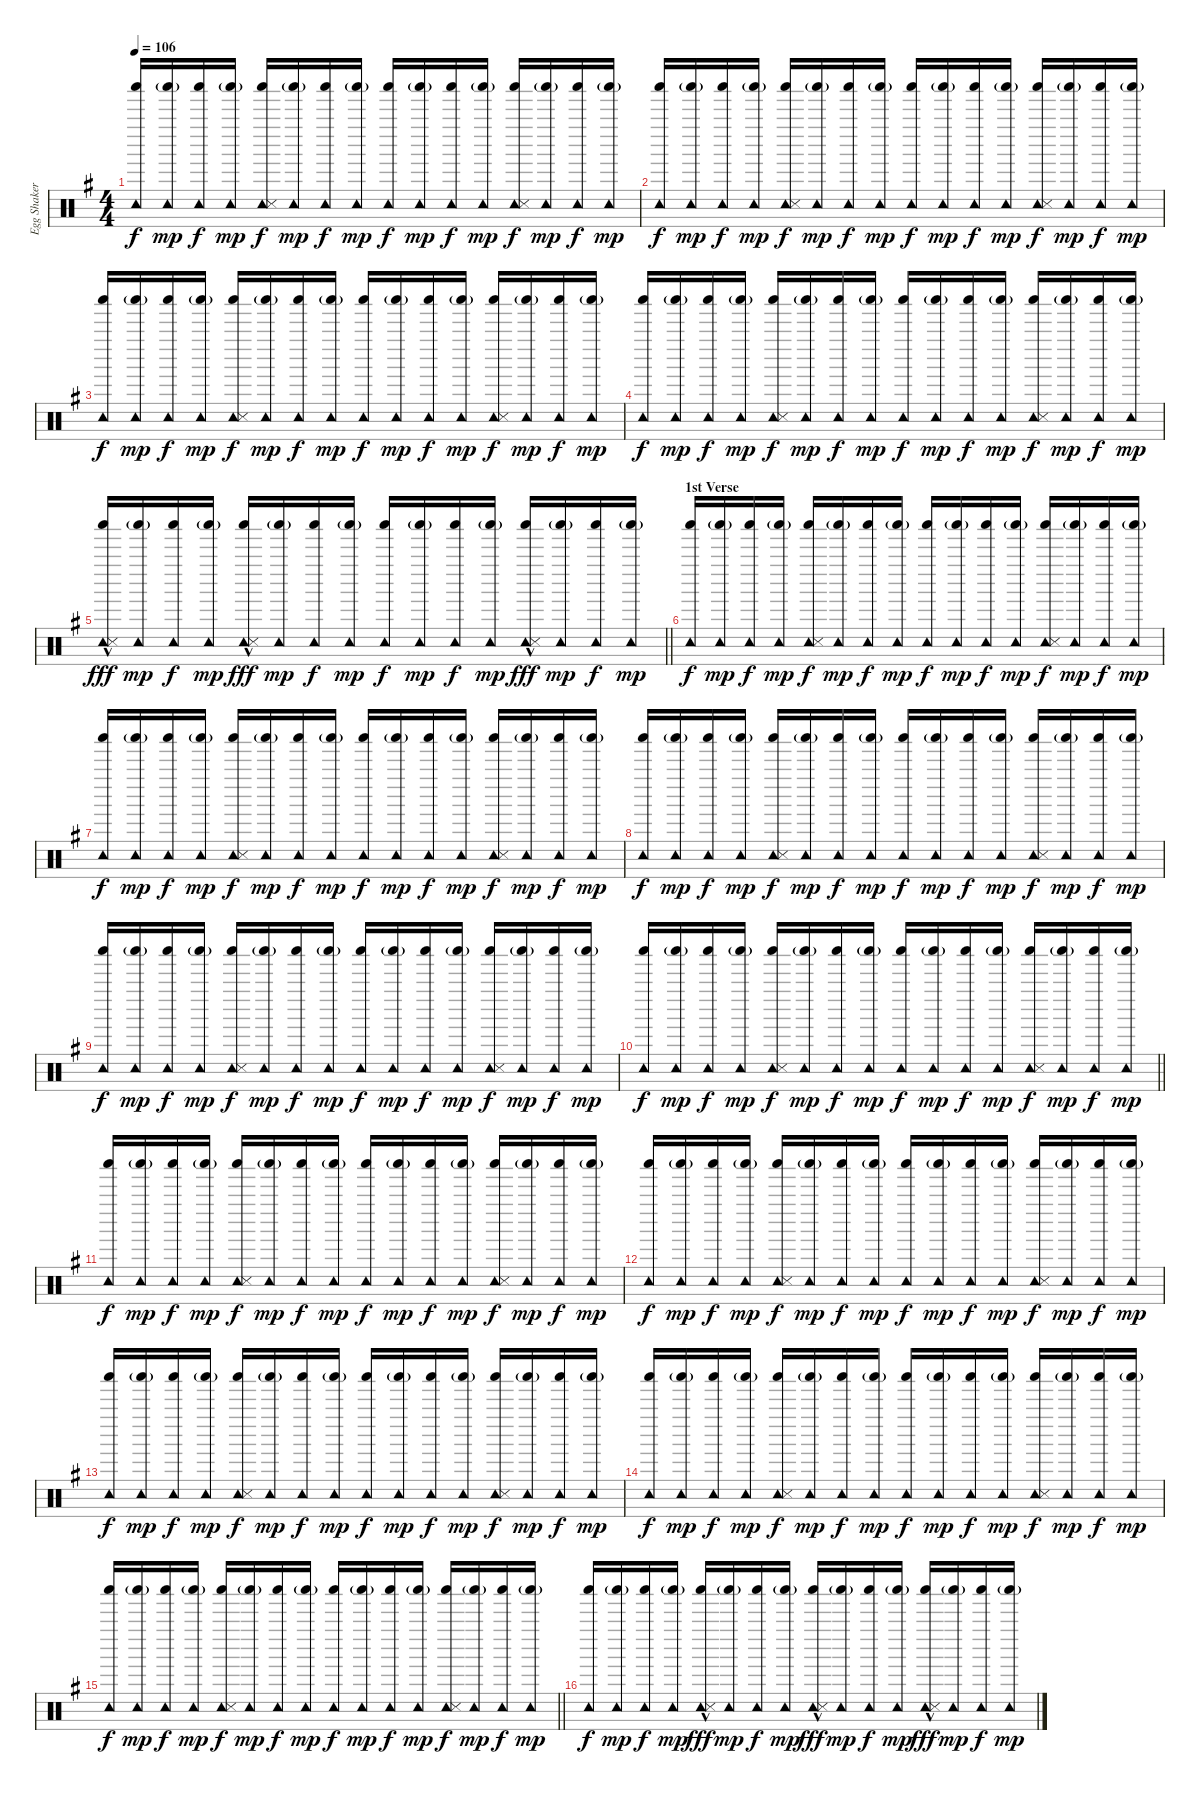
\track ("Egg Shaker and Tambourine" "Egg Shaker") {instrument percussion}
\staff {score}
\articulation defaults
\ts (4 4)
\tempo 106
\clef neutral
\ks eminor
("Tambourine (hit)" "Shaker (hit)").16{dy f beam Up} ("Tambourine (hit)" "Shaker (hit)"{g}).16{dy mp beam Up} ("Tambourine (hit)" "Shaker (hit)").16{dy f beam Up} ("Tambourine (hit)" "Shaker (hit)"{g}).16{dy mp beam Up} ("Tambourine (hit)" "Shaker (hit)" "Snare (side stick) 3").16{dy f beam Up} ("Tambourine (hit)" "Shaker (hit)"{g}).16{dy mp beam Up} ("Tambourine (hit)" "Shaker (hit)").16{dy f beam Up} ("Tambourine (hit)" "Shaker (hit)"{g}).16{dy mp beam Up} ("Tambourine (hit)" "Shaker (hit)").16{dy f beam Up} ("Tambourine (hit)" "Shaker (hit)"{g}).16{dy mp beam Up} ("Tambourine (hit)" "Shaker (hit)").16{dy f beam Up} ("Tambourine (hit)" "Shaker (hit)"{g}).16{dy mp beam Up} ("Tambourine (hit)" "Shaker (hit)" "Snare (side stick) 3").16{dy f beam Up} ("Tambourine (hit)" "Shaker (hit)"{g}).16{dy mp beam Up} ("Tambourine (hit)" "Shaker (hit)").16{dy f beam Up} ("Tambourine (hit)" "Shaker (hit)"{g}).16{dy mp beam Up} |
("Tambourine (hit)" "Shaker (hit)").16{dy f beam Up} ("Tambourine (hit)" "Shaker (hit)"{g}).16{dy mp beam Up} ("Tambourine (hit)" "Shaker (hit)").16{dy f beam Up} ("Tambourine (hit)" "Shaker (hit)"{g}).16{dy mp beam Up} ("Tambourine (hit)" "Shaker (hit)" "Snare (side stick) 3").16{dy f beam Up} ("Tambourine (hit)" "Shaker (hit)"{g}).16{dy mp beam Up} ("Tambourine (hit)" "Shaker (hit)").16{dy f beam Up} ("Tambourine (hit)" "Shaker (hit)"{g}).16{dy mp beam Up} ("Tambourine (hit)" "Shaker (hit)").16{dy f beam Up} ("Tambourine (hit)" "Shaker (hit)"{g}).16{dy mp beam Up} ("Tambourine (hit)" "Shaker (hit)").16{dy f beam Up} ("Tambourine (hit)" "Shaker (hit)"{g}).16{dy mp beam Up} ("Tambourine (hit)" "Shaker (hit)" "Snare (side stick) 3").16{dy f beam Up} ("Tambourine (hit)" "Shaker (hit)"{g}).16{dy mp beam Up} ("Tambourine (hit)" "Shaker (hit)").16{dy f beam Up} ("Tambourine (hit)" "Shaker (hit)"{g}).16{dy mp beam Up} |
("Tambourine (hit)" "Shaker (hit)").16{dy f beam Up} ("Tambourine (hit)" "Shaker (hit)"{g}).16{dy mp beam Up} ("Tambourine (hit)" "Shaker (hit)").16{dy f beam Up} ("Tambourine (hit)" "Shaker (hit)"{g}).16{dy mp beam Up} ("Tambourine (hit)" "Shaker (hit)" "Snare (side stick) 3").16{dy f beam Up} ("Tambourine (hit)" "Shaker (hit)"{g}).16{dy mp beam Up} ("Tambourine (hit)" "Shaker (hit)").16{dy f beam Up} ("Tambourine (hit)" "Shaker (hit)"{g}).16{dy mp beam Up} ("Tambourine (hit)" "Shaker (hit)").16{dy f beam Up} ("Tambourine (hit)" "Shaker (hit)"{g}).16{dy mp beam Up} ("Tambourine (hit)" "Shaker (hit)").16{dy f beam Up} ("Tambourine (hit)" "Shaker (hit)"{g}).16{dy mp beam Up} ("Tambourine (hit)" "Shaker (hit)" "Snare (side stick) 3").16{dy f beam Up} ("Tambourine (hit)" "Shaker (hit)"{g}).16{dy mp beam Up} ("Tambourine (hit)" "Shaker (hit)").16{dy f beam Up} ("Tambourine (hit)" "Shaker (hit)"{g}).16{dy mp beam Up} |
("Tambourine (hit)" "Shaker (hit)").16{dy f beam Up} ("Tambourine (hit)" "Shaker (hit)"{g}).16{dy mp beam Up} ("Tambourine (hit)" "Shaker (hit)").16{dy f beam Up} ("Tambourine (hit)" "Shaker (hit)"{g}).16{dy mp beam Up} ("Tambourine (hit)" "Shaker (hit)" "Snare (side stick) 3").16{dy f beam Up} ("Tambourine (hit)" "Shaker (hit)"{g}).16{dy mp beam Up} ("Tambourine (hit)" "Shaker (hit)").16{dy f beam Up} ("Tambourine (hit)" "Shaker (hit)"{g}).16{dy mp beam Up} ("Tambourine (hit)" "Shaker (hit)").16{dy f beam Up} ("Tambourine (hit)" "Shaker (hit)"{g}).16{dy mp beam Up} ("Tambourine (hit)" "Shaker (hit)").16{dy f beam Up} ("Tambourine (hit)" "Shaker (hit)"{g}).16{dy mp beam Up} ("Tambourine (hit)" "Shaker (hit)" "Snare (side stick) 3").16{dy f beam Up} ("Tambourine (hit)" "Shaker (hit)"{g}).16{dy mp beam Up} ("Tambourine (hit)" "Shaker (hit)").16{dy f beam Up} ("Tambourine (hit)" "Shaker (hit)"{g}).16{dy mp beam Up} |
\barLineRight lightlight
("Tambourine (hit)" "Shaker (hit)" "Snare (side stick) 3"{hac}).16{dy fff beam Up} ("Tambourine (hit)" "Shaker (hit)"{g}).16{dy mp beam Up} ("Tambourine (hit)" "Shaker (hit)").16{dy f beam Up} ("Tambourine (hit)" "Shaker (hit)"{g}).16{dy mp beam Up} ("Tambourine (hit)" "Shaker (hit)" "Snare (side stick) 3"{hac}).16{dy fff beam Up} ("Tambourine (hit)" "Shaker (hit)"{g}).16{dy mp beam Up} ("Tambourine (hit)" "Shaker (hit)").16{dy f beam Up} ("Tambourine (hit)" "Shaker (hit)"{g}).16{dy mp beam Up} ("Tambourine (hit)" "Shaker (hit)").16{dy f beam Up} ("Tambourine (hit)" "Shaker (hit)"{g}).16{dy mp beam Up} ("Tambourine (hit)" "Shaker (hit)").16{dy f beam Up} ("Tambourine (hit)" "Shaker (hit)"{g}).16{dy mp beam Up} ("Tambourine (hit)" "Shaker (hit)" "Snare (side stick) 3"{hac}).16{dy fff beam Up} ("Tambourine (hit)" "Shaker (hit)"{g}).16{dy mp beam Up} ("Tambourine (hit)" "Shaker (hit)").16{dy f beam Up} ("Tambourine (hit)" "Shaker (hit)"{g}).16{dy mp beam Up} |
\section ("" "1st Verse")
("Tambourine (hit)" "Shaker (hit)").16{dy f beam Up} ("Tambourine (hit)" "Shaker (hit)"{g}).16{dy mp beam Up} ("Tambourine (hit)" "Shaker (hit)").16{dy f beam Up} ("Tambourine (hit)" "Shaker (hit)"{g}).16{dy mp beam Up} ("Tambourine (hit)" "Shaker (hit)" "Snare (side stick) 3").16{dy f beam Up} ("Tambourine (hit)" "Shaker (hit)"{g}).16{dy mp beam Up} ("Tambourine (hit)" "Shaker (hit)").16{dy f beam Up} ("Tambourine (hit)" "Shaker (hit)"{g}).16{dy mp beam Up} ("Tambourine (hit)" "Shaker (hit)").16{dy f beam Up} ("Tambourine (hit)" "Shaker (hit)"{g}).16{dy mp beam Up} ("Tambourine (hit)" "Shaker (hit)").16{dy f beam Up} ("Tambourine (hit)" "Shaker (hit)"{g}).16{dy mp beam Up} ("Tambourine (hit)" "Shaker (hit)" "Snare (side stick) 3").16{dy f beam Up} ("Tambourine (hit)" "Shaker (hit)"{g}).16{dy mp beam Up} ("Tambourine (hit)" "Shaker (hit)").16{dy f beam Up} ("Tambourine (hit)" "Shaker (hit)"{g}).16{dy mp beam Up} |
("Tambourine (hit)" "Shaker (hit)").16{dy f beam Up} ("Tambourine (hit)" "Shaker (hit)"{g}).16{dy mp beam Up} ("Tambourine (hit)" "Shaker (hit)").16{dy f beam Up} ("Tambourine (hit)" "Shaker (hit)"{g}).16{dy mp beam Up} ("Tambourine (hit)" "Shaker (hit)" "Snare (side stick) 3").16{dy f beam Up} ("Tambourine (hit)" "Shaker (hit)"{g}).16{dy mp beam Up} ("Tambourine (hit)" "Shaker (hit)").16{dy f beam Up} ("Tambourine (hit)" "Shaker (hit)"{g}).16{dy mp beam Up} ("Tambourine (hit)" "Shaker (hit)").16{dy f beam Up} ("Tambourine (hit)" "Shaker (hit)"{g}).16{dy mp beam Up} ("Tambourine (hit)" "Shaker (hit)").16{dy f beam Up} ("Tambourine (hit)" "Shaker (hit)"{g}).16{dy mp beam Up} ("Tambourine (hit)" "Shaker (hit)" "Snare (side stick) 3").16{dy f beam Up} ("Tambourine (hit)" "Shaker (hit)"{g}).16{dy mp beam Up} ("Tambourine (hit)" "Shaker (hit)").16{dy f beam Up} ("Tambourine (hit)" "Shaker (hit)"{g}).16{dy mp beam Up} |
("Tambourine (hit)" "Shaker (hit)").16{dy f beam Up} ("Tambourine (hit)" "Shaker (hit)"{g}).16{dy mp beam Up} ("Tambourine (hit)" "Shaker (hit)").16{dy f beam Up} ("Tambourine (hit)" "Shaker (hit)"{g}).16{dy mp beam Up} ("Tambourine (hit)" "Shaker (hit)" "Snare (side stick) 3").16{dy f beam Up} ("Tambourine (hit)" "Shaker (hit)"{g}).16{dy mp beam Up} ("Tambourine (hit)" "Shaker (hit)").16{dy f beam Up} ("Tambourine (hit)" "Shaker (hit)"{g}).16{dy mp beam Up} ("Tambourine (hit)" "Shaker (hit)").16{dy f beam Up} ("Tambourine (hit)" "Shaker (hit)"{g}).16{dy mp beam Up} ("Tambourine (hit)" "Shaker (hit)").16{dy f beam Up} ("Tambourine (hit)" "Shaker (hit)"{g}).16{dy mp beam Up} ("Tambourine (hit)" "Shaker (hit)" "Snare (side stick) 3").16{dy f beam Up} ("Tambourine (hit)" "Shaker (hit)"{g}).16{dy mp beam Up} ("Tambourine (hit)" "Shaker (hit)").16{dy f beam Up} ("Tambourine (hit)" "Shaker (hit)"{g}).16{dy mp beam Up} |
("Tambourine (hit)" "Shaker (hit)").16{dy f beam Up} ("Tambourine (hit)" "Shaker (hit)"{g}).16{dy mp beam Up} ("Tambourine (hit)" "Shaker (hit)").16{dy f beam Up} ("Tambourine (hit)" "Shaker (hit)"{g}).16{dy mp beam Up} ("Tambourine (hit)" "Shaker (hit)" "Snare (side stick) 3").16{dy f beam Up} ("Tambourine (hit)" "Shaker (hit)"{g}).16{dy mp beam Up} ("Tambourine (hit)" "Shaker (hit)").16{dy f beam Up} ("Tambourine (hit)" "Shaker (hit)"{g}).16{dy mp beam Up} ("Tambourine (hit)" "Shaker (hit)").16{dy f beam Up} ("Tambourine (hit)" "Shaker (hit)"{g}).16{dy mp beam Up} ("Tambourine (hit)" "Shaker (hit)").16{dy f beam Up} ("Tambourine (hit)" "Shaker (hit)"{g}).16{dy mp beam Up} ("Tambourine (hit)" "Shaker (hit)" "Snare (side stick) 3").16{dy f beam Up} ("Tambourine (hit)" "Shaker (hit)"{g}).16{dy mp beam Up} ("Tambourine (hit)" "Shaker (hit)").16{dy f beam Up} ("Tambourine (hit)" "Shaker (hit)"{g}).16{dy mp beam Up} |
\barLineRight lightlight
("Tambourine (hit)" "Shaker (hit)").16{dy f beam Up} ("Tambourine (hit)" "Shaker (hit)"{g}).16{dy mp beam Up} ("Tambourine (hit)" "Shaker (hit)").16{dy f beam Up} ("Tambourine (hit)" "Shaker (hit)"{g}).16{dy mp beam Up} ("Tambourine (hit)" "Shaker (hit)" "Snare (side stick) 3").16{dy f beam Up} ("Tambourine (hit)" "Shaker (hit)"{g}).16{dy mp beam Up} ("Tambourine (hit)" "Shaker (hit)").16{dy f beam Up} ("Tambourine (hit)" "Shaker (hit)"{g}).16{dy mp beam Up} ("Tambourine (hit)" "Shaker (hit)").16{dy f beam Up} ("Tambourine (hit)" "Shaker (hit)"{g}).16{dy mp beam Up} ("Tambourine (hit)" "Shaker (hit)").16{dy f beam Up} ("Tambourine (hit)" "Shaker (hit)"{g}).16{dy mp beam Up} ("Tambourine (hit)" "Shaker (hit)" "Snare (side stick) 3").16{dy f beam Up} ("Tambourine (hit)" "Shaker (hit)"{g}).16{dy mp beam Up} ("Tambourine (hit)" "Shaker (hit)").16{dy f beam Up} ("Tambourine (hit)" "Shaker (hit)"{g}).16{dy mp beam Up} |
("Tambourine (hit)" "Shaker (hit)").16{dy f beam Up} ("Tambourine (hit)" "Shaker (hit)"{g}).16{dy mp beam Up} ("Tambourine (hit)" "Shaker (hit)").16{dy f beam Up} ("Tambourine (hit)" "Shaker (hit)"{g}).16{dy mp beam Up} ("Tambourine (hit)" "Shaker (hit)" "Snare (side stick) 3").16{dy f beam Up} ("Tambourine (hit)" "Shaker (hit)"{g}).16{dy mp beam Up} ("Tambourine (hit)" "Shaker (hit)").16{dy f beam Up} ("Tambourine (hit)" "Shaker (hit)"{g}).16{dy mp beam Up} ("Tambourine (hit)" "Shaker (hit)").16{dy f beam Up} ("Tambourine (hit)" "Shaker (hit)"{g}).16{dy mp beam Up} ("Tambourine (hit)" "Shaker (hit)").16{dy f beam Up} ("Tambourine (hit)" "Shaker (hit)"{g}).16{dy mp beam Up} ("Tambourine (hit)" "Shaker (hit)" "Snare (side stick) 3").16{dy f beam Up} ("Tambourine (hit)" "Shaker (hit)"{g}).16{dy mp beam Up} ("Tambourine (hit)" "Shaker (hit)").16{dy f beam Up} ("Tambourine (hit)" "Shaker (hit)"{g}).16{dy mp beam Up} |
("Tambourine (hit)" "Shaker (hit)").16{dy f beam Up} ("Tambourine (hit)" "Shaker (hit)"{g}).16{dy mp beam Up} ("Tambourine (hit)" "Shaker (hit)").16{dy f beam Up} ("Tambourine (hit)" "Shaker (hit)"{g}).16{dy mp beam Up} ("Tambourine (hit)" "Shaker (hit)" "Snare (side stick) 3").16{dy f beam Up} ("Tambourine (hit)" "Shaker (hit)"{g}).16{dy mp beam Up} ("Tambourine (hit)" "Shaker (hit)").16{dy f beam Up} ("Tambourine (hit)" "Shaker (hit)"{g}).16{dy mp beam Up} ("Tambourine (hit)" "Shaker (hit)").16{dy f beam Up} ("Tambourine (hit)" "Shaker (hit)"{g}).16{dy mp beam Up} ("Tambourine (hit)" "Shaker (hit)").16{dy f beam Up} ("Tambourine (hit)" "Shaker (hit)"{g}).16{dy mp beam Up} ("Tambourine (hit)" "Shaker (hit)" "Snare (side stick) 3").16{dy f beam Up} ("Tambourine (hit)" "Shaker (hit)"{g}).16{dy mp beam Up} ("Tambourine (hit)" "Shaker (hit)").16{dy f beam Up} ("Tambourine (hit)" "Shaker (hit)"{g}).16{dy mp beam Up} |
("Tambourine (hit)" "Shaker (hit)").16{dy f beam Up} ("Tambourine (hit)" "Shaker (hit)"{g}).16{dy mp beam Up} ("Tambourine (hit)" "Shaker (hit)").16{dy f beam Up} ("Tambourine (hit)" "Shaker (hit)"{g}).16{dy mp beam Up} ("Tambourine (hit)" "Shaker (hit)" "Snare (side stick) 3").16{dy f beam Up} ("Tambourine (hit)" "Shaker (hit)"{g}).16{dy mp beam Up} ("Tambourine (hit)" "Shaker (hit)").16{dy f beam Up} ("Tambourine (hit)" "Shaker (hit)"{g}).16{dy mp beam Up} ("Tambourine (hit)" "Shaker (hit)").16{dy f beam Up} ("Tambourine (hit)" "Shaker (hit)"{g}).16{dy mp beam Up} ("Tambourine (hit)" "Shaker (hit)").16{dy f beam Up} ("Tambourine (hit)" "Shaker (hit)"{g}).16{dy mp beam Up} ("Tambourine (hit)" "Shaker (hit)" "Snare (side stick) 3").16{dy f beam Up} ("Tambourine (hit)" "Shaker (hit)"{g}).16{dy mp beam Up} ("Tambourine (hit)" "Shaker (hit)").16{dy f beam Up} ("Tambourine (hit)" "Shaker (hit)"{g}).16{dy mp beam Up} |
("Tambourine (hit)" "Shaker (hit)").16{dy f beam Up} ("Tambourine (hit)" "Shaker (hit)"{g}).16{dy mp beam Up} ("Tambourine (hit)" "Shaker (hit)").16{dy f beam Up} ("Tambourine (hit)" "Shaker (hit)"{g}).16{dy mp beam Up} ("Tambourine (hit)" "Shaker (hit)" "Snare (side stick) 3").16{dy f beam Up} ("Tambourine (hit)" "Shaker (hit)"{g}).16{dy mp beam Up} ("Tambourine (hit)" "Shaker (hit)").16{dy f beam Up} ("Tambourine (hit)" "Shaker (hit)"{g}).16{dy mp beam Up} ("Tambourine (hit)" "Shaker (hit)").16{dy f beam Up} ("Tambourine (hit)" "Shaker (hit)"{g}).16{dy mp beam Up} ("Tambourine (hit)" "Shaker (hit)").16{dy f beam Up} ("Tambourine (hit)" "Shaker (hit)"{g}).16{dy mp beam Up} ("Tambourine (hit)" "Shaker (hit)" "Snare (side stick) 3").16{dy f beam Up} ("Tambourine (hit)" "Shaker (hit)"{g}).16{dy mp beam Up} ("Tambourine (hit)" "Shaker (hit)").16{dy f beam Up} ("Tambourine (hit)" "Shaker (hit)"{g}).16{dy mp beam Up} |
\barLineRight lightlight
("Tambourine (hit)" "Shaker (hit)").16{dy f beam Up} ("Tambourine (hit)" "Shaker (hit)"{g}).16{dy mp beam Up} ("Tambourine (hit)" "Shaker (hit)").16{dy f beam Up} ("Tambourine (hit)" "Shaker (hit)"{g}).16{dy mp beam Up} ("Tambourine (hit)" "Shaker (hit)" "Snare (side stick) 3").16{dy f beam Up} ("Tambourine (hit)" "Shaker (hit)"{g}).16{dy mp beam Up} ("Tambourine (hit)" "Shaker (hit)").16{dy f beam Up} ("Tambourine (hit)" "Shaker (hit)"{g}).16{dy mp beam Up} ("Tambourine (hit)" "Shaker (hit)").16{dy f beam Up} ("Tambourine (hit)" "Shaker (hit)"{g}).16{dy mp beam Up} ("Tambourine (hit)" "Shaker (hit)").16{dy f beam Up} ("Tambourine (hit)" "Shaker (hit)"{g}).16{dy mp beam Up} ("Tambourine (hit)" "Shaker (hit)" "Snare (side stick) 3").16{dy f beam Up} ("Tambourine (hit)" "Shaker (hit)"{g}).16{dy mp beam Up} ("Tambourine (hit)" "Shaker (hit)").16{dy f beam Up} ("Tambourine (hit)" "Shaker (hit)"{g}).16{dy mp beam Up} |
("Tambourine (hit)" "Shaker (hit)").16{dy f beam Up} ("Tambourine (hit)" "Shaker (hit)"{g}).16{dy mp beam Up} ("Tambourine (hit)" "Shaker (hit)").16{dy f beam Up} ("Tambourine (hit)" "Shaker (hit)"{g}).16{dy mp beam Up} ("Tambourine (hit)" "Shaker (hit)" "Snare (side stick) 3"{hac}).16{dy fff beam Up} ("Tambourine (hit)" "Shaker (hit)"{g}).16{dy mp beam Up} ("Tambourine (hit)" "Shaker (hit)").16{dy f beam Up} ("Tambourine (hit)" "Shaker (hit)"{g}).16{dy mp beam Up} ("Tambourine (hit)" "Shaker (hit)" "Snare (side stick) 3"{hac}).16{dy fff beam Up} ("Tambourine (hit)" "Shaker (hit)"{g}).16{dy mp beam Up} ("Tambourine (hit)" "Shaker (hit)").16{dy f beam Up} ("Tambourine (hit)" "Shaker (hit)"{g}).16{dy mp beam Up} ("Tambourine (hit)" "Shaker (hit)" "Snare (side stick) 3"{hac}).16{dy fff beam Up} ("Tambourine (hit)" "Shaker (hit)"{g}).16{dy mp beam Up} ("Tambourine (hit)" "Shaker (hit)").16{dy f beam Up} ("Tambourine (hit)" "Shaker (hit)"{g}).16{dy mp beam Up}
